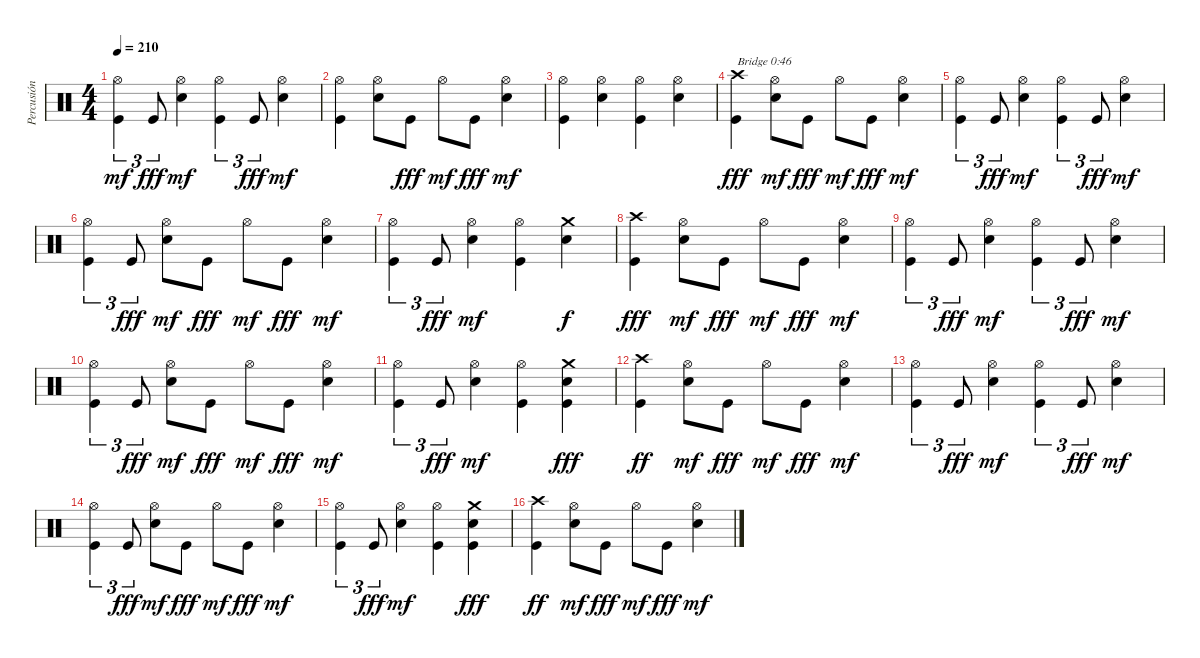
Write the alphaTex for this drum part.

\track ("Percusión" "Percusión") {instrument percussion}
\staff {score}
\articulation defaults
\ts (4 4)
\tempo 210
\clef neutral
\ks c
("Kick (hit)" "Hi-Hat (open)").4{tu (3 2) dy mf} "Kick (hit)".8{tu (3 2) dy fff} ("Electric Snare (hit)" "Hi-Hat (open)").4{dy mf} ("Kick (hit)" "Hi-Hat (open)").4{tu (3 2)} "Kick (hit)".8{tu (3 2) dy fff} ("Electric Snare (hit)" "Hi-Hat (open)").4{dy mf} |
("Kick (hit)" "Hi-Hat (open)").4 ("Electric Snare (hit)" "Hi-Hat (open)").8 "Kick (hit)".8{dy fff} "Hi-Hat (open)".8{dy mf} "Kick (hit)".8{dy fff} ("Electric Snare (hit)" "Hi-Hat (open)").4{dy mf} |
("Kick (hit)" "Hi-Hat (open)").4 ("Electric Snare (hit)" "Hi-Hat (open)").4 ("Kick (hit)" "Hi-Hat (open)").4 ("Electric Snare (hit)" "Hi-Hat (open)").4 |
("Kick (hit)" "Crash high (hit)").4{txt "Bridge 0:46" dy fff} ("Electric Snare (hit)" "Hi-Hat (open)").8{dy mf} "Kick (hit)".8{dy fff} "Hi-Hat (open)".8{dy mf} "Kick (hit)".8{dy fff} ("Electric Snare (hit)" "Hi-Hat (open)").4{dy mf} |
("Kick (hit)" "Hi-Hat (open)").4{tu (3 2)} "Kick (hit)".8{tu (3 2) dy fff} ("Electric Snare (hit)" "Hi-Hat (open)").4{dy mf} ("Kick (hit)" "Hi-Hat (open)").4{tu (3 2)} "Kick (hit)".8{tu (3 2) dy fff} ("Electric Snare (hit)" "Hi-Hat (open)").4{dy mf} |
("Kick (hit)" "Hi-Hat (open)").4{tu (3 2)} "Kick (hit)".8{tu (3 2) dy fff} ("Electric Snare (hit)" "Hi-Hat (open)").8{dy mf} "Kick (hit)".8{dy fff} "Hi-Hat (open)".8{dy mf} "Kick (hit)".8{dy fff} ("Electric Snare (hit)" "Hi-Hat (open)").4{dy mf} |
("Kick (hit)" "Hi-Hat (open)").4{tu (3 2)} "Kick (hit)".8{tu (3 2) dy fff} ("Electric Snare (hit)" "Hi-Hat (open)").4{dy mf} ("Kick (hit)" "Hi-Hat (open)").4 ("Electric Snare (hit)" "Crash medium (hit)").4{dy f} |
("Kick (hit)" "Crash high (hit)").4{dy fff} ("Electric Snare (hit)" "Hi-Hat (open)").8{dy mf} "Kick (hit)".8{dy fff} "Hi-Hat (open)".8{dy mf} "Kick (hit)".8{dy fff} ("Electric Snare (hit)" "Hi-Hat (open)").4{dy mf} |
("Kick (hit)" "Hi-Hat (open)").4{tu (3 2)} "Kick (hit)".8{tu (3 2) dy fff} ("Electric Snare (hit)" "Hi-Hat (open)").4{dy mf} ("Kick (hit)" "Hi-Hat (open)").4{tu (3 2)} "Kick (hit)".8{tu (3 2) dy fff} ("Electric Snare (hit)" "Hi-Hat (open)").4{dy mf} |
("Kick (hit)" "Hi-Hat (open)").4{tu (3 2)} "Kick (hit)".8{tu (3 2) dy fff} ("Electric Snare (hit)" "Hi-Hat (open)").8{dy mf} "Kick (hit)".8{dy fff} "Hi-Hat (open)".8{dy mf} "Kick (hit)".8{dy fff} ("Electric Snare (hit)" "Hi-Hat (open)").4{dy mf} |
("Kick (hit)" "Hi-Hat (open)").4{tu (3 2)} "Kick (hit)".8{tu (3 2) dy fff} ("Electric Snare (hit)" "Hi-Hat (open)").4{dy mf} ("Kick (hit)" "Hi-Hat (open)").4 ("Kick (hit)" "Electric Snare (hit)" "Crash medium (hit)").4{dy fff} |
("Kick (hit)" "Crash high (hit)").4{dy ff} ("Electric Snare (hit)" "Hi-Hat (open)").8{dy mf} "Kick (hit)".8{dy fff} "Hi-Hat (open)".8{dy mf} "Kick (hit)".8{dy fff} ("Electric Snare (hit)" "Hi-Hat (open)").4{dy mf} |
("Kick (hit)" "Hi-Hat (open)").4{tu (3 2)} "Kick (hit)".8{tu (3 2) dy fff} ("Electric Snare (hit)" "Hi-Hat (open)").4{dy mf} ("Kick (hit)" "Hi-Hat (open)").4{tu (3 2)} "Kick (hit)".8{tu (3 2) dy fff} ("Electric Snare (hit)" "Hi-Hat (open)").4{dy mf} |
("Kick (hit)" "Hi-Hat (open)").4{tu (3 2)} "Kick (hit)".8{tu (3 2) dy fff} ("Electric Snare (hit)" "Hi-Hat (open)").8{dy mf} "Kick (hit)".8{dy fff} "Hi-Hat (open)".8{dy mf} "Kick (hit)".8{dy fff} ("Electric Snare (hit)" "Hi-Hat (open)").4{dy mf} |
("Kick (hit)" "Hi-Hat (open)").4{tu (3 2)} "Kick (hit)".8{tu (3 2) dy fff} ("Electric Snare (hit)" "Hi-Hat (open)").4{dy mf} ("Kick (hit)" "Hi-Hat (open)").4 ("Kick (hit)" "Electric Snare (hit)" "Crash medium (hit)").4{dy fff} |
("Kick (hit)" "Crash high (hit)").4{dy ff} ("Electric Snare (hit)" "Hi-Hat (open)").8{dy mf} "Kick (hit)".8{dy fff} "Hi-Hat (open)".8{dy mf} "Kick (hit)".8{dy fff} ("Electric Snare (hit)" "Hi-Hat (open)").4{dy mf}
